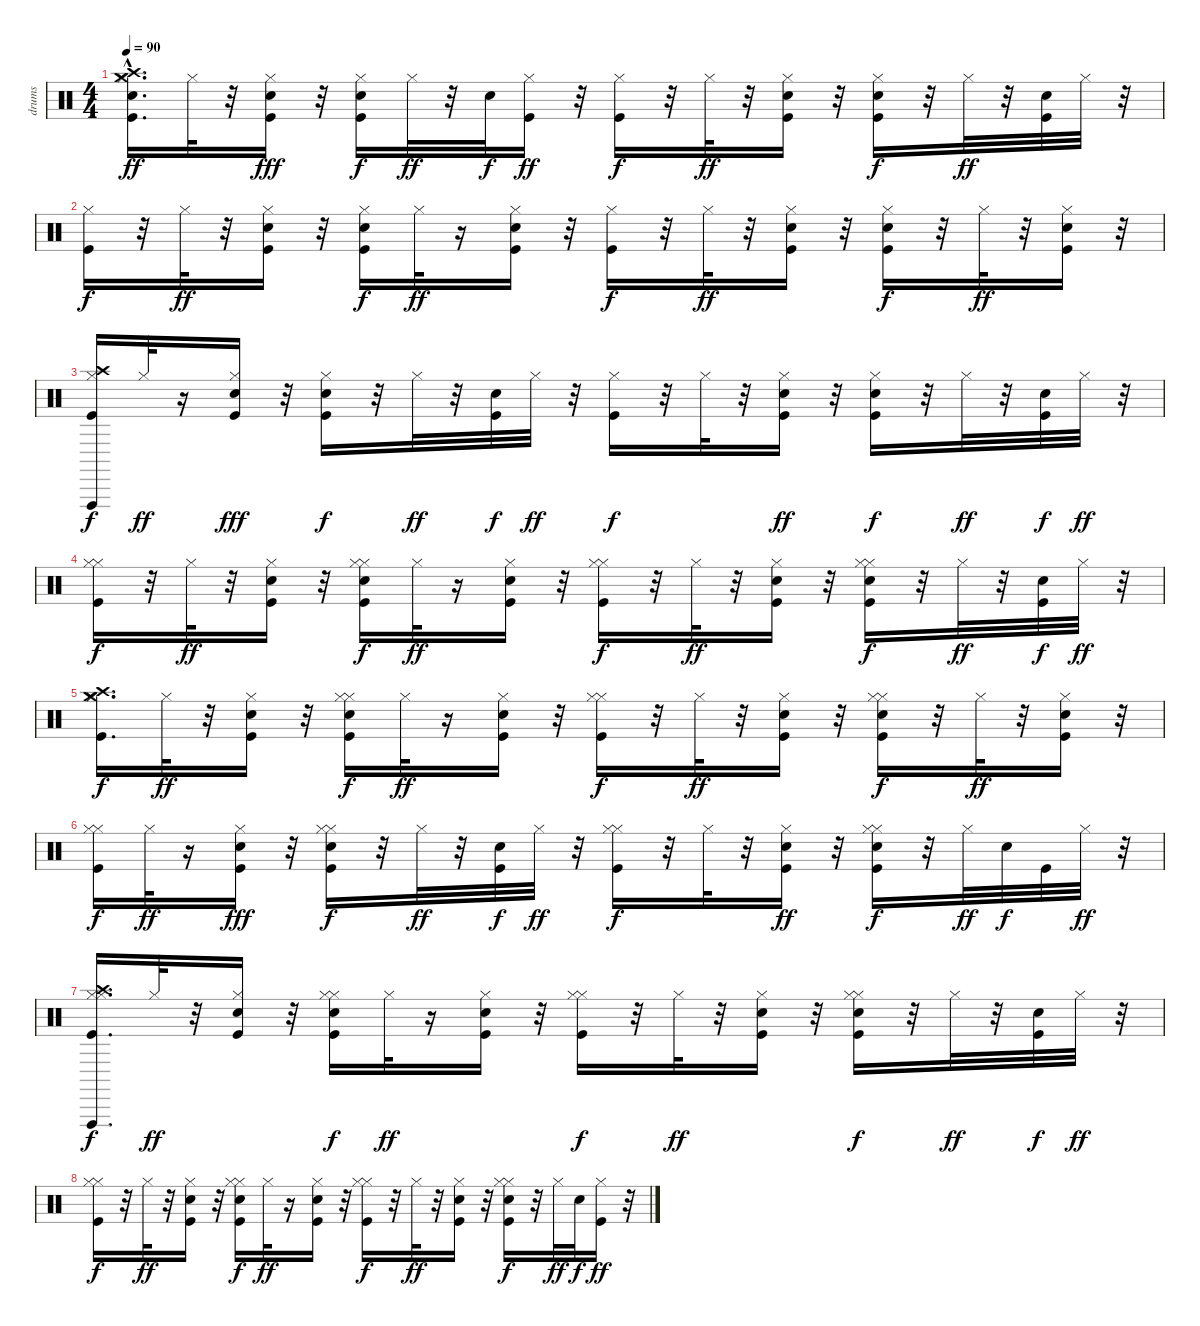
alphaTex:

\track ("drums" "drums") {instrument percussion}
\staff {score}
\articulation defaults
\ts (4 4)
\tempo 90
\clef neutral
\ks c
("Kick (hit)" "Crash medium (hit)" "Crash high (hit)" "Hi-Hat (closed)" "Snare (hit)"{hac}).16{d dy ff} "Hi-Hat (closed)".32 r.32 ("Kick (hit)" "Hi-Hat (closed)" "Snare (hit)").16{dy fff} r.32 ("Kick (hit)" "Electric Snare (hit)" "Hi-Hat (closed)").16{dy f} "Hi-Hat (closed)".32{dy ff} r.32 "Snare (hit)".32{dy f} ("Kick (hit)" "Hi-Hat (closed)").16{dy ff} r.32 ("Kick (hit)" "Hi-Hat (closed)").16{dy f} r.32 "Hi-Hat (closed)".32{dy ff} r.32 ("Kick (hit)" "Snare (hit)" "Hi-Hat (closed)").16 r.32 ("Kick (hit)" "Electric Snare (hit)" "Hi-Hat (closed)").16{dy f} r.32 "Hi-Hat (closed)".32{dy ff} r.32 ("Kick (hit)" "Snare (hit)").32 "Hi-Hat (closed)".32 r.32 |
("Kick (hit)" "Hi-Hat (closed)").16{dy f} r.32 "Hi-Hat (closed)".32{dy ff} r.32 ("Kick (hit)" "Snare (hit)" "Hi-Hat (closed)").16 r.32 ("Kick (hit)" "Electric Snare (hit)" "Hi-Hat (closed)").16{dy f} "Hi-Hat (closed)".32{dy ff} r.16 ("Kick (hit)" "Hi-Hat (closed)" "Snare (hit)").16 r.32 ("Kick (hit)" "Hi-Hat (closed)").16{dy f} r.32 "Hi-Hat (closed)".32{dy ff} r.32 ("Snare (hit)" "Kick (hit)" "Hi-Hat (closed)").16 r.32 ("Kick (hit)" "Electric Snare (hit)" "Hi-Hat (closed)").16{dy f} r.32 "Hi-Hat (closed)".32{dy ff} r.32 ("Kick (hit)" "Snare (hit)" "Hi-Hat (closed)").16 r.32 |
("Kick (hit)" "Hi-Hat (closed)" "Crash high (hit)" "Vibraslap (hit)").16{dy f} "Hi-Hat (closed)".32{dy ff} r.16 ("Kick (hit)" "Snare (hit)" "Hi-Hat (closed)").16{dy fff} r.32 ("Kick (hit)" "Electric Snare (hit)" "Hi-Hat (closed)").16{dy f} r.32 "Hi-Hat (closed)".32{dy ff} r.32 ("Kick (hit)" "Snare (hit)").32{dy f} "Hi-Hat (closed)".32{dy ff} r.32 ("Kick (hit)" "Hi-Hat (closed)").16{dy f} r.32 "Hi-Hat (closed)".32 r.32 ("Kick (hit)" "Snare (hit)" "Hi-Hat (closed)").16{dy ff} r.32 ("Kick (hit)" "Electric Snare (hit)" "Hi-Hat (closed)").16{dy f} r.32 "Hi-Hat (closed)".32{dy ff} r.32 ("Kick (hit)" "Snare (hit)").32{dy f} "Hi-Hat (closed)".32{dy ff} r.32 |
("Kick (hit)" "Hi-Hat (closed)" "Hi-Hat (closed)").16{dy f} r.32 "Hi-Hat (closed)".32{dy ff} r.32 ("Snare (hit)" "Kick (hit)" "Hi-Hat (closed)").16 r.32 ("Kick (hit)" "Electric Snare (hit)" "Hi-Hat (closed)" "Hi-Hat (closed)").16{dy f} "Hi-Hat (closed)".32{dy ff} r.16 ("Snare (hit)" "Kick (hit)" "Hi-Hat (closed)").16 r.32 ("Kick (hit)" "Hi-Hat (closed)" "Hi-Hat (closed)").16{dy f} r.32 "Hi-Hat (closed)".32{dy ff} r.32 ("Snare (hit)" "Kick (hit)" "Hi-Hat (closed)").16 r.32 ("Kick (hit)" "Electric Snare (hit)" "Hi-Hat (closed)" "Hi-Hat (closed)").16{dy f} r.32 "Hi-Hat (closed)".32{dy ff} r.32 ("Kick (hit)" "Snare (hit)").32{dy f} "Hi-Hat (closed)".32{dy ff} r.32 |
("Kick (hit)" "Crash high (hit)" "Crash medium (hit)" "Hi-Hat (closed)" "Hi-Hat (closed)").16{d dy f} "Hi-Hat (closed)".32{dy ff} r.32 ("Kick (hit)" "Snare (hit)" "Hi-Hat (closed)").16 r.32 ("Kick (hit)" "Electric Snare (hit)" "Hi-Hat (closed)" "Hi-Hat (closed)").16{dy f} "Hi-Hat (closed)".32{dy ff} r.16 ("Kick (hit)" "Hi-Hat (closed)" "Snare (hit)").16 r.32 ("Kick (hit)" "Hi-Hat (closed)" "Hi-Hat (closed)").16{dy f} r.32 "Hi-Hat (closed)".32{dy ff} r.32 ("Kick (hit)" "Snare (hit)" "Hi-Hat (closed)").16 r.32 ("Kick (hit)" "Electric Snare (hit)" "Hi-Hat (closed)" "Hi-Hat (closed)").16{dy f} r.32 "Hi-Hat (closed)".32{dy ff} r.32 ("Kick (hit)" "Snare (hit)" "Hi-Hat (closed)").16 r.32 |
("Kick (hit)" "Hi-Hat (closed)" "Hi-Hat (closed)").16{dy f} "Hi-Hat (closed)".32{dy ff} r.16 ("Snare (hit)" "Kick (hit)" "Hi-Hat (closed)").16{dy fff} r.32 ("Kick (hit)" "Electric Snare (hit)" "Hi-Hat (closed)" "Hi-Hat (closed)").16{dy f} r.32 "Hi-Hat (closed)".32{dy ff} r.32 ("Kick (hit)" "Snare (hit)").32{dy f} "Hi-Hat (closed)".32{dy ff} r.32 ("Kick (hit)" "Hi-Hat (closed)" "Hi-Hat (closed)").16{dy f} r.32 "Hi-Hat (closed)".32 r.32 ("Snare (hit)" "Kick (hit)" "Hi-Hat (closed)").16{dy ff} r.32 ("Kick (hit)" "Electric Snare (hit)" "Hi-Hat (closed)" "Hi-Hat (closed)").16{dy f} r.32 "Hi-Hat (closed)".32{dy ff} "Snare (hit)".32{dy f} "Kick (hit)".32 "Hi-Hat (closed)".32{dy ff} r.32 |
("Kick (hit)" "Crash high (hit)" "Hi-Hat (closed)" "Hi-Hat (closed)" "Vibraslap (hit)").16{d dy f} "Hi-Hat (closed)".32{dy ff} r.32 ("Kick (hit)" "Snare (hit)" "Hi-Hat (closed)").16 r.32 ("Kick (hit)" "Electric Snare (hit)" "Hi-Hat (closed)" "Hi-Hat (closed)").16{dy f} "Hi-Hat (closed)".32{dy ff} r.16 ("Snare (hit)" "Kick (hit)" "Hi-Hat (closed)").16 r.32 ("Kick (hit)" "Hi-Hat (closed)" "Hi-Hat (closed)").16{dy f} r.32 "Hi-Hat (closed)".32{dy ff} r.32 ("Kick (hit)" "Snare (hit)" "Hi-Hat (closed)").16 r.32 ("Kick (hit)" "Electric Snare (hit)" "Hi-Hat (closed)" "Hi-Hat (closed)").16{dy f} r.32 "Hi-Hat (closed)".32{dy ff} r.32 ("Kick (hit)" "Snare (hit)").32{dy f} "Hi-Hat (closed)".32{dy ff} r.32 |
("Kick (hit)" "Hi-Hat (closed)" "Hi-Hat (closed)").16{dy f} r.32 "Hi-Hat (closed)".32{dy ff} r.32 ("Snare (hit)" "Kick (hit)" "Hi-Hat (closed)").16 r.32 ("Kick (hit)" "Electric Snare (hit)" "Hi-Hat (closed)" "Hi-Hat (closed)").16{dy f} "Hi-Hat (closed)".32{dy ff} r.16 ("Kick (hit)" "Snare (hit)" "Hi-Hat (closed)").16 r.32 ("Kick (hit)" "Hi-Hat (closed)" "Hi-Hat (closed)").16{dy f} r.32 "Hi-Hat (closed)".32{dy ff} r.32 ("Snare (hit)" "Kick (hit)" "Hi-Hat (closed)").16 r.32 ("Kick (hit)" "Electric Snare (hit)" "Hi-Hat (closed)" "Hi-Hat (closed)").16{dy f} r.32 "Hi-Hat (closed)".32{dy ff} "Snare (hit)".32{dy f} ("Kick (hit)" "Hi-Hat (closed)").16{dy ff} r.32
